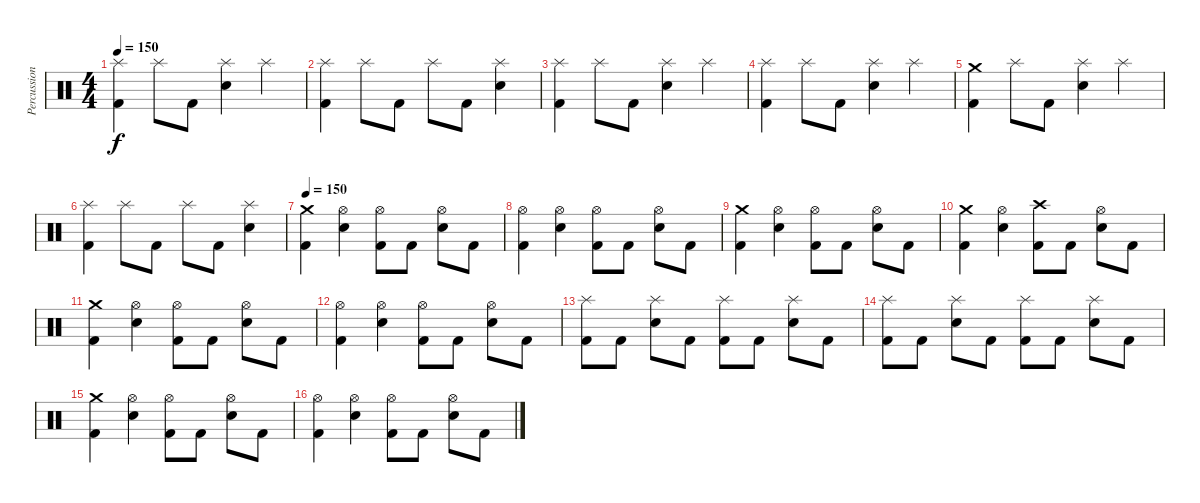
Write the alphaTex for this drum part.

\track ("Percussions" "Percussion") {instrument percussion}
\staff {score}
\articulation defaults
\ts (4 4)
\tempo 150
\clef neutral
\ks c
("Kick (hit) 2" "Splash (hit)").4{dy f} "Splash (hit)".8 "Kick (hit) 2".8 ("Snare (hit) 2" "Splash (hit)").4 "Splash (hit)".4 |
("Kick (hit) 2" "Splash (hit)").4 "Splash (hit)".8 "Kick (hit) 2".8 "Splash (hit)".8 "Kick (hit) 2".8 ("Snare (hit) 2" "Splash (hit)").4 |
("Kick (hit) 2" "Splash (hit)").4 "Splash (hit)".8 "Kick (hit) 2".8 ("Snare (hit) 2" "Splash (hit)").4 "Splash (hit)".4 |
("Kick (hit) 2" "Splash (hit)").4 "Splash (hit)".8 "Kick (hit) 2".8 ("Snare (hit) 2" "Splash (hit)").4 "Splash (hit)".4 |
("Kick (hit) 2" "Crash medium (hit)").4 "Splash (hit)".8 "Kick (hit) 2".8 ("Snare (hit) 2" "Splash (hit)").4 "Splash (hit)".4 |
("Kick (hit) 2" "Splash (hit)").4 "Splash (hit)".8 "Kick (hit) 2".8 "Splash (hit)".8 "Kick (hit) 2".8 ("Snare (hit) 2" "Splash (hit)").4 |
\tempo 150
("Kick (hit) 2" "Crash medium (hit)").4 ("Snare (hit) 2" "Hi-Hat (open)").4 ("Kick (hit) 2" "Hi-Hat (open)").8 "Kick (hit) 2".8 ("Snare (hit) 2" "Hi-Hat (open)").8 "Kick (hit) 2".8 |
("Kick (hit) 2" "Hi-Hat (open)").4 ("Snare (hit) 2" "Hi-Hat (open)").4 ("Kick (hit) 2" "Hi-Hat (open)").8 "Kick (hit) 2".8 ("Snare (hit) 2" "Hi-Hat (open)").8 "Kick (hit) 2".8 |
("Kick (hit) 2" "Crash medium (hit)").4 ("Snare (hit) 2" "Hi-Hat (open)").4 ("Kick (hit) 2" "Hi-Hat (open)").8 "Kick (hit) 2".8 ("Snare (hit) 2" "Hi-Hat (open)").8 "Kick (hit) 2".8 |
("Kick (hit) 2" "Crash medium (hit)").4 ("Snare (hit) 2" "Hi-Hat (open)").4 ("Kick (hit) 2" "Crash high (hit)").8 "Kick (hit) 2".8 ("Snare (hit) 2" "Hi-Hat (open)").8 "Kick (hit) 2".8 |
("Kick (hit) 2" "Crash medium (hit)").4 ("Snare (hit) 2" "Hi-Hat (open)").4 ("Kick (hit) 2" "Hi-Hat (open)").8 "Kick (hit) 2".8 ("Snare (hit) 2" "Hi-Hat (open)").8 "Kick (hit) 2".8 |
("Kick (hit) 2" "Hi-Hat (open)").4 ("Snare (hit) 2" "Hi-Hat (open)").4 ("Kick (hit) 2" "Hi-Hat (open)").8 "Kick (hit) 2".8 ("Snare (hit) 2" "Hi-Hat (open)").8 "Kick (hit) 2".8 |
("Kick (hit) 2" "Splash (hit)").8 "Kick (hit) 2".8 ("Snare (hit) 2" "Splash (hit)").8 "Kick (hit) 2".8 ("Kick (hit) 2" "Splash (hit)").8 "Kick (hit) 2".8 ("Snare (hit) 2" "Splash (hit)").8 "Kick (hit) 2".8 |
("Kick (hit) 2" "Splash (hit)").8 "Kick (hit) 2".8 ("Snare (hit) 2" "Splash (hit)").8 "Kick (hit) 2".8 ("Kick (hit) 2" "Splash (hit)").8 "Kick (hit) 2".8 ("Snare (hit) 2" "Splash (hit)").8 "Kick (hit) 2".8 |
("Kick (hit) 2" "Crash medium (hit)").4 ("Snare (hit) 2" "Hi-Hat (open)").4 ("Kick (hit) 2" "Hi-Hat (open)").8 "Kick (hit) 2".8 ("Snare (hit) 2" "Hi-Hat (open)").8 "Kick (hit) 2".8 |
("Kick (hit) 2" "Hi-Hat (open)").4 ("Snare (hit) 2" "Hi-Hat (open)").4 ("Kick (hit) 2" "Hi-Hat (open)").8 "Kick (hit) 2".8 ("Snare (hit) 2" "Hi-Hat (open)").8 "Kick (hit) 2".8
